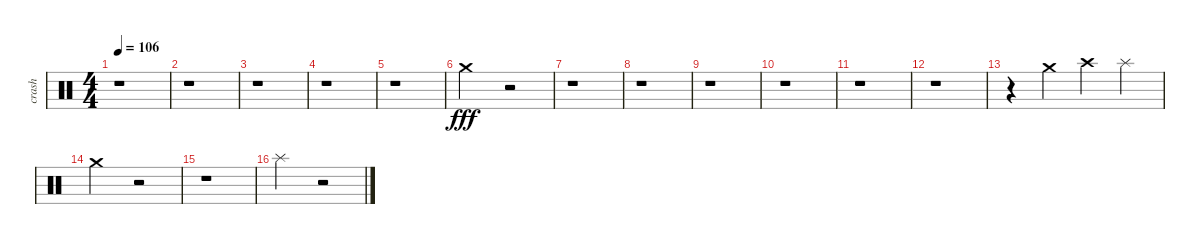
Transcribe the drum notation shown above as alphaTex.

\track ("crash" "crash") {instrument percussion}
\staff {score}
\articulation defaults
\ts (4 4)
\tempo 106
\clef neutral
\ks c
r.1{dy fff} |
r.1 |
r.1 |
r.1 |
r.1 |
"Crash medium (hit)".2 r.2 |
r.1 |
r.1 |
r.1 |
r.1 |
r.1 |
r.1 |
r.4 "Crash medium (hit)".4 "Crash high (hit)".4 "Splash (hit)".4 |
"Crash medium (hit)".2 r.2 |
r.1 |
"Splash (hit)".2 r.2
